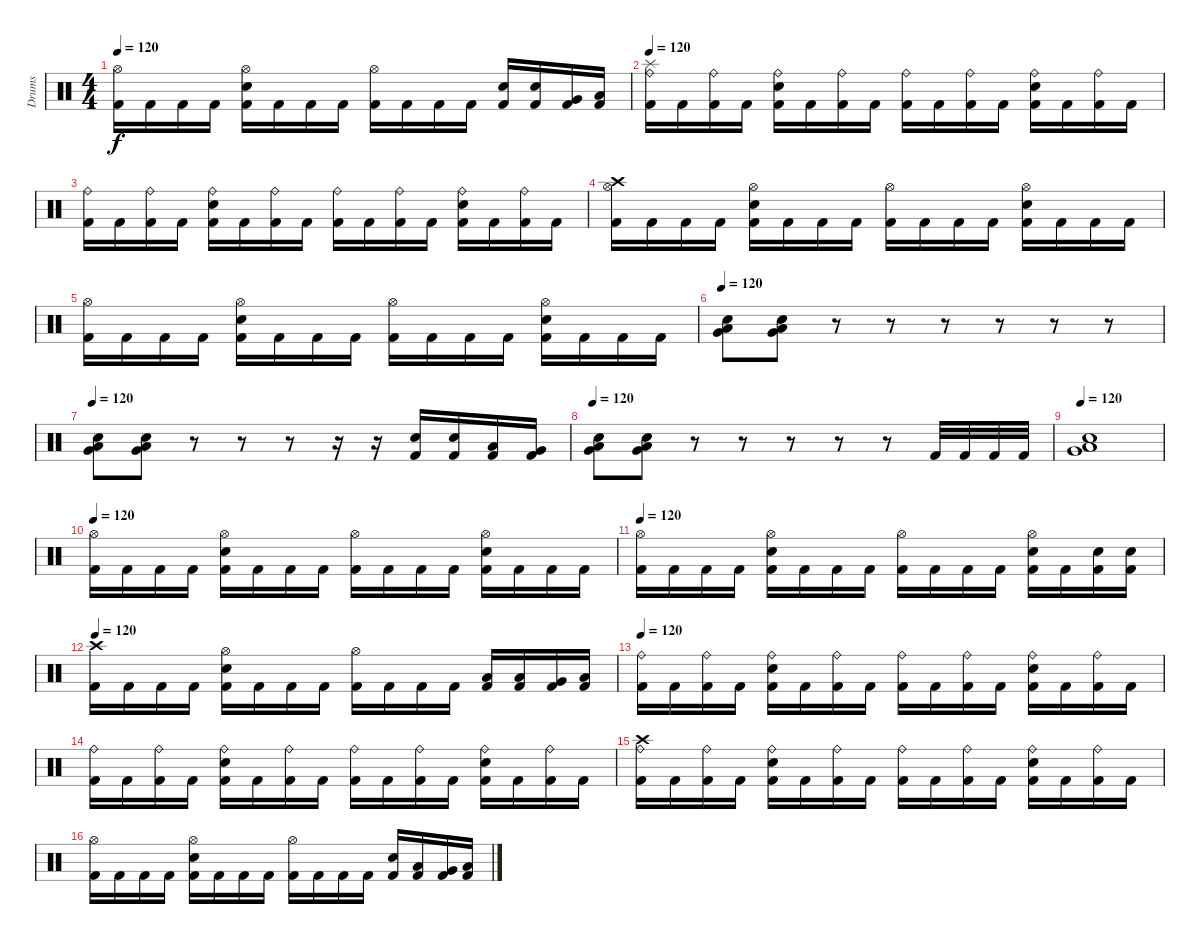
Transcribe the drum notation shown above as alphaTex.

\track ("Drums" "Drums") {instrument percussion}
\staff {score}
\articulation defaults
\ts (4 4)
\tempo 120
\clef neutral
\ks c
("Hi-Hat (open)" "Kick (hit) 2").16{dy f} "Kick (hit) 2".16 "Kick (hit) 2".16 "Kick (hit) 2".16 ("Electric Snare (hit)" "Hi-Hat (open)" "Kick (hit) 2").16 "Kick (hit) 2".16 "Kick (hit) 2".16 "Kick (hit) 2".16 ("Hi-Hat (open)" "Kick (hit) 2").16 "Kick (hit) 2".16 "Kick (hit) 2".16 "Kick (hit) 2".16 ("Electric Snare (hit)" "Kick (hit) 2").16 ("Electric Snare (hit)" "Kick (hit) 2").16 ("Very Low Tom (hit)" "Kick (hit) 2").16 ("Low Floor Tom (hit)" "Kick (hit) 2").16 |
\tempo 120
("Splash (hit)" "Ride (bell)" "Kick (hit) 2").16 "Kick (hit) 2".16 ("Ride (bell)" "Kick (hit) 2").16 "Kick (hit) 2".16 ("Electric Snare (hit)" "Ride (bell)" "Kick (hit) 2").16 "Kick (hit) 2".16 ("Ride (bell)" "Kick (hit) 2").16 "Kick (hit) 2".16 ("Ride (bell)" "Kick (hit) 2").16 "Kick (hit) 2".16 ("Ride (bell)" "Kick (hit) 2").16 "Kick (hit) 2".16 ("Electric Snare (hit)" "Ride (bell)" "Kick (hit) 2").16 "Kick (hit) 2".16 ("Ride (bell)" "Kick (hit) 2").16 "Kick (hit) 2".16 |
("Ride (bell)" "Kick (hit) 2").16 "Kick (hit) 2".16 ("Ride (bell)" "Kick (hit) 2").16 "Kick (hit) 2".16 ("Electric Snare (hit)" "Ride (bell)" "Kick (hit) 2").16 "Kick (hit) 2".16 ("Ride (bell)" "Kick (hit) 2").16 "Kick (hit) 2".16 ("Ride (bell)" "Kick (hit) 2").16 "Kick (hit) 2".16 ("Ride (bell)" "Kick (hit) 2").16 "Kick (hit) 2".16 ("Electric Snare (hit)" "Ride (bell)" "Kick (hit) 2").16 "Kick (hit) 2".16 ("Ride (bell)" "Kick (hit) 2").16 "Kick (hit) 2".16 |
("Crash high (hit)" "Hi-Hat (open)" "Kick (hit) 2").16 "Kick (hit) 2".16 "Kick (hit) 2".16 "Kick (hit) 2".16 ("Electric Snare (hit)" "Hi-Hat (open)" "Kick (hit) 2").16 "Kick (hit) 2".16 "Kick (hit) 2".16 "Kick (hit) 2".16 ("Hi-Hat (open)" "Kick (hit) 2").16 "Kick (hit) 2".16 "Kick (hit) 2".16 "Kick (hit) 2".16 ("Hi-Hat (open)" "Electric Snare (hit)" "Kick (hit) 2").16 "Kick (hit) 2".16 "Kick (hit) 2".16 "Kick (hit) 2".16 |
("Hi-Hat (open)" "Kick (hit) 2").16 "Kick (hit) 2".16 "Kick (hit) 2".16 "Kick (hit) 2".16 ("Electric Snare (hit)" "Hi-Hat (open)" "Kick (hit) 2").16 "Kick (hit) 2".16 "Kick (hit) 2".16 "Kick (hit) 2".16 ("Hi-Hat (open)" "Kick (hit) 2").16 "Kick (hit) 2".16 "Kick (hit) 2".16 "Kick (hit) 2".16 ("Hi-Hat (open)" "Electric Snare (hit)" "Kick (hit) 2").16 "Kick (hit) 2".16 "Kick (hit) 2".16 "Kick (hit) 2".16 |
\tempo 120
("Electric Snare (hit)" "Very Low Tom (hit)" "Low Floor Tom (hit)").8 ("Electric Snare (hit)" "Very Low Tom (hit)" "Low Floor Tom (hit)").8 r.8 r.8 r.8 r.8 r.8 r.8 |
\tempo 120
("Electric Snare (hit)" "Very Low Tom (hit)" "Low Floor Tom (hit)").8 ("Electric Snare (hit)" "Very Low Tom (hit)" "Low Floor Tom (hit)").8 r.8 r.8 r.8 r.16 r.16 ("Electric Snare (hit)" "Kick (hit) 2").16 ("Electric Snare (hit)" "Kick (hit) 2").16 ("Low Tom (hit)" "Kick (hit) 2").16 ("Very Low Tom (hit)" "Kick (hit) 2").16 |
\tempo 120
("Electric Snare (hit)" "Very Low Tom (hit)" "Low Floor Tom (hit)").8 ("Electric Snare (hit)" "Very Low Tom (hit)" "Low Floor Tom (hit)").8 r.8 r.8 r.8 r.8 r.8 "Kick (hit) 2".32 "Kick (hit) 2".32 "Kick (hit) 2".32 "Kick (hit) 2".32 |
\tempo 120
("Electric Snare (hit)" "Low Floor Tom (hit)" "Very Low Tom (hit)").1 |
\tempo 120
("Hi-Hat (open)" "Kick (hit) 2").16 "Kick (hit) 2".16 "Kick (hit) 2".16 "Kick (hit) 2".16 ("Electric Snare (hit)" "Hi-Hat (open)" "Kick (hit) 2").16 "Kick (hit) 2".16 "Kick (hit) 2".16 "Kick (hit) 2".16 ("Hi-Hat (open)" "Kick (hit) 2").16 "Kick (hit) 2".16 "Kick (hit) 2".16 "Kick (hit) 2".16 ("Hi-Hat (open)" "Electric Snare (hit)" "Kick (hit) 2").16 "Kick (hit) 2".16 "Kick (hit) 2".16 "Kick (hit) 2".16 |
\tempo 120
("Hi-Hat (open)" "Kick (hit) 2").16 "Kick (hit) 2".16 "Kick (hit) 2".16 "Kick (hit) 2".16 ("Electric Snare (hit)" "Hi-Hat (open)" "Kick (hit) 2").16 "Kick (hit) 2".16 "Kick (hit) 2".16 "Kick (hit) 2".16 ("Hi-Hat (open)" "Kick (hit) 2").16 "Kick (hit) 2".16 "Kick (hit) 2".16 "Kick (hit) 2".16 ("Hi-Hat (open)" "Electric Snare (hit)" "Kick (hit) 2").16 "Kick (hit) 2".16 ("Electric Snare (hit)" "Kick (hit) 2").16 ("Electric Snare (hit)" "Kick (hit) 2").16 |
\tempo 120
("Crash high (hit)" "Kick (hit) 2").16 "Kick (hit) 2".16 "Kick (hit) 2".16 "Kick (hit) 2".16 ("Electric Snare (hit)" "Hi-Hat (open)" "Kick (hit) 2").16 "Kick (hit) 2".16 "Kick (hit) 2".16 "Kick (hit) 2".16 ("Hi-Hat (open)" "Kick (hit) 2").16 "Kick (hit) 2".16 "Kick (hit) 2".16 "Kick (hit) 2".16 ("Low Tom (hit)" "Kick (hit) 2").16 ("Low Tom (hit)" "Kick (hit) 2").16 ("Very Low Tom (hit)" "Kick (hit) 2").16 ("Low Floor Tom (hit)" "Kick (hit) 2").16 |
\tempo 120
("Ride (bell)" "Kick (hit) 2").16 "Kick (hit) 2".16 ("Ride (bell)" "Kick (hit) 2").16 "Kick (hit) 2".16 ("Electric Snare (hit)" "Ride (bell)" "Kick (hit) 2").16 "Kick (hit) 2".16 ("Ride (bell)" "Kick (hit) 2").16 "Kick (hit) 2".16 ("Ride (bell)" "Kick (hit) 2").16 "Kick (hit) 2".16 ("Ride (bell)" "Kick (hit) 2").16 "Kick (hit) 2".16 ("Electric Snare (hit)" "Ride (bell)" "Kick (hit) 2").16 "Kick (hit) 2".16 ("Ride (bell)" "Kick (hit) 2").16 "Kick (hit) 2".16 |
("Ride (bell)" "Kick (hit) 2").16 "Kick (hit) 2".16 ("Ride (bell)" "Kick (hit) 2").16 "Kick (hit) 2".16 ("Electric Snare (hit)" "Ride (bell)" "Kick (hit) 2").16 "Kick (hit) 2".16 ("Ride (bell)" "Kick (hit) 2").16 "Kick (hit) 2".16 ("Ride (bell)" "Kick (hit) 2").16 "Kick (hit) 2".16 ("Ride (bell)" "Kick (hit) 2").16 "Kick (hit) 2".16 ("Electric Snare (hit)" "Ride (bell)" "Kick (hit) 2").16 "Kick (hit) 2".16 ("Ride (bell)" "Kick (hit) 2").16 "Kick (hit) 2".16 |
("Crash high (hit)" "Ride (bell)" "Kick (hit) 2").16 "Kick (hit) 2".16 ("Ride (bell)" "Kick (hit) 2").16 "Kick (hit) 2".16 ("Electric Snare (hit)" "Ride (bell)" "Kick (hit) 2").16 "Kick (hit) 2".16 ("Ride (bell)" "Kick (hit) 2").16 "Kick (hit) 2".16 ("Ride (bell)" "Kick (hit) 2").16 "Kick (hit) 2".16 ("Ride (bell)" "Kick (hit) 2").16 "Kick (hit) 2".16 ("Electric Snare (hit)" "Ride (bell)" "Kick (hit) 2").16 "Kick (hit) 2".16 ("Ride (bell)" "Kick (hit) 2").16 "Kick (hit) 2".16 |
("Hi-Hat (open)" "Kick (hit) 2").16 "Kick (hit) 2".16 "Kick (hit) 2".16 "Kick (hit) 2".16 ("Electric Snare (hit)" "Hi-Hat (open)" "Kick (hit) 2").16 "Kick (hit) 2".16 "Kick (hit) 2".16 "Kick (hit) 2".16 ("Hi-Hat (open)" "Kick (hit) 2").16 "Kick (hit) 2".16 "Kick (hit) 2".16 "Kick (hit) 2".16 ("Electric Snare (hit)" "Kick (hit) 2").16 ("Low Tom (hit)" "Kick (hit) 2").16 ("Very Low Tom (hit)" "Kick (hit) 2").16 ("Low Floor Tom (hit)" "Kick (hit) 2").16
